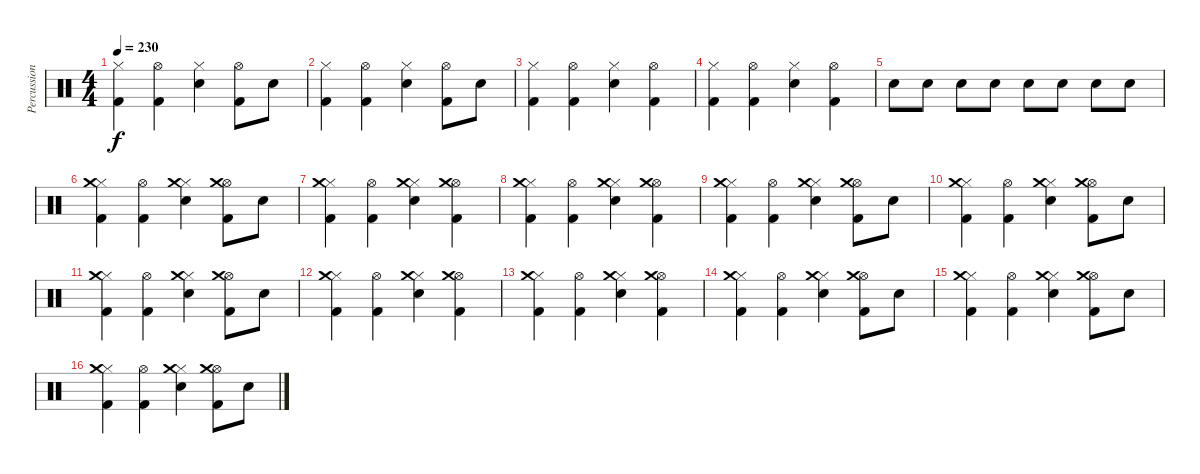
\track ("Percussion" "Percussion") {instrument percussion}
\staff {score}
\articulation defaults
\ts (4 4)
\tempo 230
\clef neutral
\ks c
("Hi-Hat (closed)" "Kick (hit) 2").4{dy f} ("Hi-Hat (open)" "Kick (hit) 2").4 ("Hi-Hat (closed)" "Electric Snare (hit)").4 ("Hi-Hat (open)" "Kick (hit) 2").8 "Electric Snare (hit)".8 |
("Hi-Hat (closed)" "Kick (hit) 2").4 ("Hi-Hat (open)" "Kick (hit) 2").4 ("Hi-Hat (closed)" "Electric Snare (hit)").4 ("Hi-Hat (open)" "Kick (hit) 2").8 "Electric Snare (hit)".8 |
("Hi-Hat (closed)" "Kick (hit) 2").4 ("Hi-Hat (open)" "Kick (hit) 2").4 ("Hi-Hat (closed)" "Electric Snare (hit)").4 ("Hi-Hat (open)" "Kick (hit) 2").4 |
("Hi-Hat (closed)" "Kick (hit) 2").4 ("Hi-Hat (open)" "Kick (hit) 2").4 ("Hi-Hat (closed)" "Electric Snare (hit)").4 ("Hi-Hat (open)" "Kick (hit) 2").4 |
"Electric Snare (hit)".8 "Electric Snare (hit)".8 "Electric Snare (hit)".8 "Electric Snare (hit)".8 "Electric Snare (hit)".8 "Electric Snare (hit)".8 "Electric Snare (hit)".8 "Electric Snare (hit)".8 |
("Hi-Hat (closed)" "Crash medium (hit)" "Kick (hit) 2").4 ("Hi-Hat (open)" "Kick (hit) 2").4 ("Hi-Hat (closed)" "Crash medium (hit)" "Electric Snare (hit)").4 ("Hi-Hat (open)" "Crash medium (hit)" "Kick (hit) 2").8 "Electric Snare (hit)".8 |
("Hi-Hat (closed)" "Crash medium (hit)" "Kick (hit) 2").4 ("Hi-Hat (open)" "Kick (hit) 2").4 ("Hi-Hat (closed)" "Crash medium (hit)" "Electric Snare (hit)").4 ("Hi-Hat (open)" "Crash medium (hit)" "Kick (hit) 2").4 |
("Hi-Hat (closed)" "Crash medium (hit)" "Kick (hit) 2").4 ("Hi-Hat (open)" "Kick (hit) 2").4 ("Hi-Hat (closed)" "Crash medium (hit)" "Electric Snare (hit)").4 ("Hi-Hat (open)" "Crash medium (hit)" "Kick (hit) 2").4 |
("Hi-Hat (closed)" "Crash medium (hit)" "Kick (hit) 2").4 ("Hi-Hat (open)" "Kick (hit) 2").4 ("Hi-Hat (closed)" "Crash medium (hit)" "Electric Snare (hit)").4 ("Hi-Hat (open)" "Crash medium (hit)" "Kick (hit) 2").8 "Electric Snare (hit)".8 |
("Hi-Hat (closed)" "Crash medium (hit)" "Kick (hit) 2").4 ("Hi-Hat (open)" "Kick (hit) 2").4 ("Hi-Hat (closed)" "Crash medium (hit)" "Electric Snare (hit)").4 ("Hi-Hat (open)" "Crash medium (hit)" "Kick (hit) 2").8 "Electric Snare (hit)".8 |
("Hi-Hat (closed)" "Crash medium (hit)" "Kick (hit) 2").4 ("Hi-Hat (open)" "Kick (hit) 2").4 ("Hi-Hat (closed)" "Crash medium (hit)" "Electric Snare (hit)").4 ("Hi-Hat (open)" "Crash medium (hit)" "Kick (hit) 2").8 "Electric Snare (hit)".8 |
("Hi-Hat (closed)" "Crash medium (hit)" "Kick (hit) 2").4 ("Hi-Hat (open)" "Kick (hit) 2").4 ("Hi-Hat (closed)" "Crash medium (hit)" "Electric Snare (hit)").4 ("Hi-Hat (open)" "Crash medium (hit)" "Kick (hit) 2").4 |
("Hi-Hat (closed)" "Crash medium (hit)" "Kick (hit) 2").4 ("Hi-Hat (open)" "Kick (hit) 2").4 ("Hi-Hat (closed)" "Crash medium (hit)" "Electric Snare (hit)").4 ("Hi-Hat (open)" "Crash medium (hit)" "Kick (hit) 2").4 |
("Hi-Hat (closed)" "Crash medium (hit)" "Kick (hit) 2").4 ("Hi-Hat (open)" "Kick (hit) 2").4 ("Hi-Hat (closed)" "Crash medium (hit)" "Electric Snare (hit)").4 ("Hi-Hat (open)" "Crash medium (hit)" "Kick (hit) 2").8 "Electric Snare (hit)".8 |
("Hi-Hat (closed)" "Crash medium (hit)" "Kick (hit) 2").4 ("Hi-Hat (open)" "Kick (hit) 2").4 ("Hi-Hat (closed)" "Crash medium (hit)" "Electric Snare (hit)").4 ("Hi-Hat (open)" "Crash medium (hit)" "Kick (hit) 2").8 "Electric Snare (hit)".8 |
("Hi-Hat (closed)" "Crash medium (hit)" "Kick (hit) 2").4 ("Hi-Hat (open)" "Kick (hit) 2").4 ("Hi-Hat (closed)" "Crash medium (hit)" "Electric Snare (hit)").4 ("Hi-Hat (open)" "Crash medium (hit)" "Kick (hit) 2").8 "Electric Snare (hit)".8
